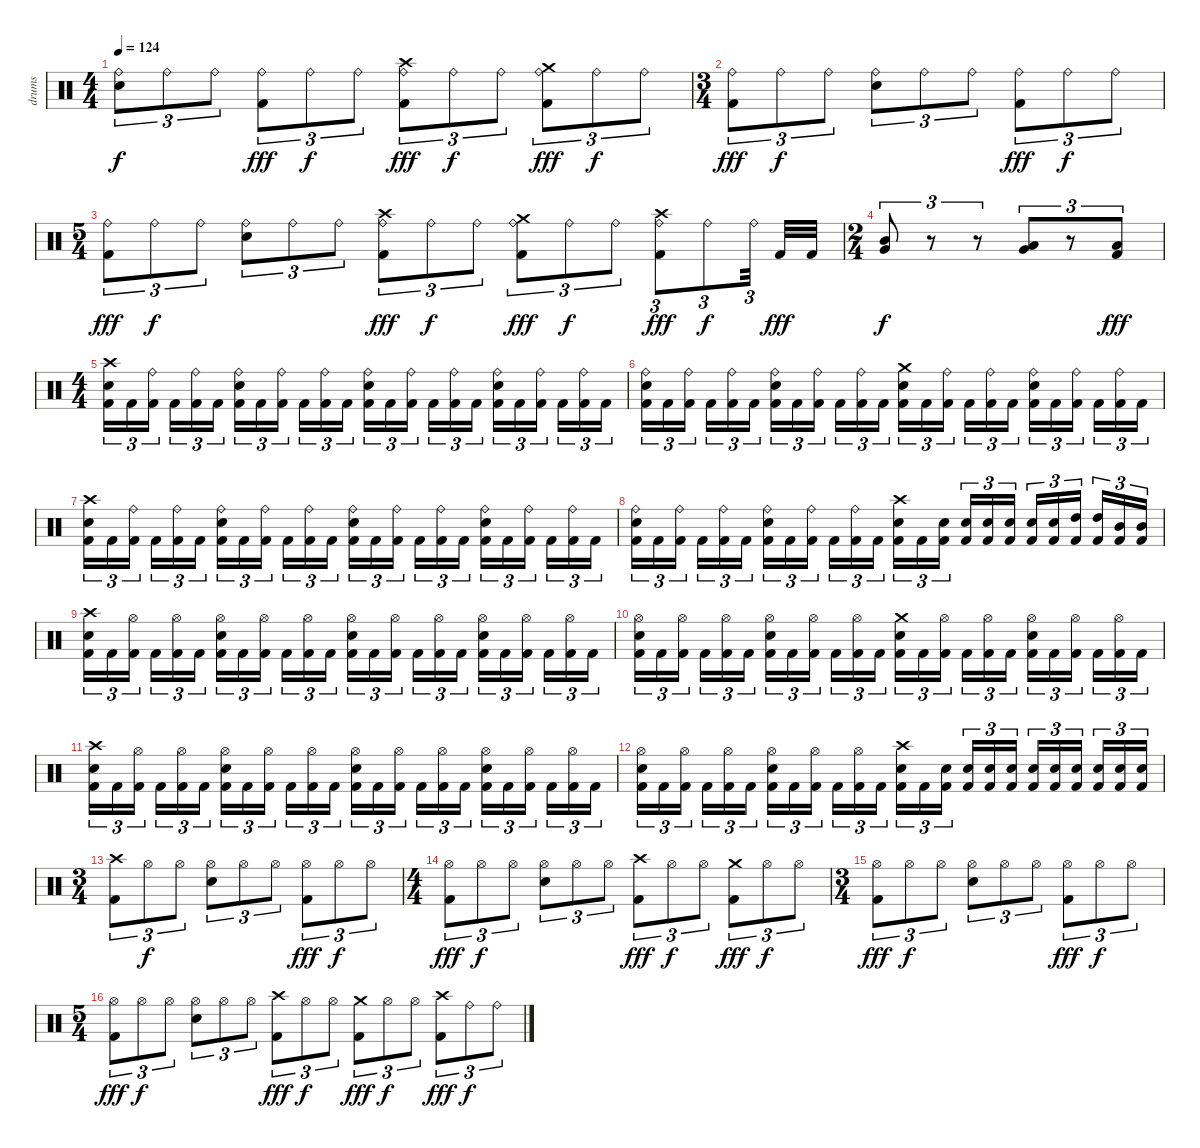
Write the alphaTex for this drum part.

\track ("drums" "drums") {instrument percussion}
\staff {score}
\articulation defaults
\ts (4 4)
\tempo 124
\clef neutral
\ks c
("Ride (bell)" "Snare (hit) 2").8{tu (3 2) dy f} "Ride (bell)".8{tu (3 2)} "Ride (bell)".8{tu (3 2)} ("Ride (bell)" "Kick (hit) 2").8{tu (3 2) dy fff} "Ride (bell)".8{tu (3 2) dy f} "Ride (bell)".8{tu (3 2)} ("Crash high (hit)" "Ride (bell)" "Kick (hit) 2").8{tu (3 2) dy fff} "Ride (bell)".8{tu (3 2) dy f} "Ride (bell)".8{tu (3 2)} ("Crash medium (hit)" "Ride (bell)" "Kick (hit) 2").8{tu (3 2) dy fff} "Ride (bell)".8{tu (3 2) dy f} "Ride (bell)".8{tu (3 2)} |
\ts (3 4)
("Ride (bell)" "Kick (hit) 2").8{tu (3 2) dy fff} "Ride (bell)".8{tu (3 2) dy f} "Ride (bell)".8{tu (3 2)} ("Ride (bell)" "Snare (hit) 2").8{tu (3 2)} "Ride (bell)".8{tu (3 2)} "Ride (bell)".8{tu (3 2)} ("Ride (bell)" "Kick (hit) 2").8{tu (3 2) dy fff} "Ride (bell)".8{tu (3 2) dy f} "Ride (bell)".8{tu (3 2)} |
\ts (5 4)
("Ride (bell)" "Kick (hit) 2").8{tu (3 2) dy fff} "Ride (bell)".8{tu (3 2) dy f} "Ride (bell)".8{tu (3 2)} ("Ride (bell)" "Snare (hit) 2").8{tu (3 2)} "Ride (bell)".8{tu (3 2)} "Ride (bell)".8{tu (3 2)} ("Crash high (hit)" "Ride (bell)" "Kick (hit) 2").8{tu (3 2) dy fff} "Ride (bell)".8{tu (3 2) dy f} "Ride (bell)".8{tu (3 2)} ("Crash medium (hit)" "Ride (bell)" "Kick (hit) 2").8{tu (3 2) dy fff} "Ride (bell)".8{tu (3 2) dy f} "Ride (bell)".8{tu (3 2)} ("Crash high (hit)" "Ride (bell)" "Kick (hit) 2").8{tu (3 2) dy fff} "Ride (bell)".8{tu (3 2) dy f} "Ride (bell)".32{tu (3 2)} "Kick (hit) 2".32{dy fff} "Kick (hit) 2".32 |
\ts (2 4)
("Mid Tom (hit)" "Very Low Tom (hit)").8{tu (3 2) dy f} r.8{tu (3 2)} r.8{tu (3 2)} ("Low Tom (hit)" "Very Low Tom (hit)").8{tu (3 2)} r.8{tu (3 2)} ("Low Tom (hit)" "Kick (hit) 2").8{tu (3 2) dy fff} |
\ts (4 4)
("Crash high (hit)" "Snare (hit) 2" "Kick (hit) 2").16{tu (3 2)} "Kick (hit) 2".16{tu (3 2)} ("Ride (bell)" "Kick (hit) 2").16{tu (3 2)} "Kick (hit) 2".16{tu (3 2)} ("Ride (bell)" "Kick (hit) 2").16{tu (3 2)} "Kick (hit) 2".16{tu (3 2)} ("Ride (bell)" "Snare (hit) 2" "Kick (hit) 2").16{tu (3 2)} "Kick (hit) 2".16{tu (3 2)} ("Ride (bell)" "Kick (hit) 2").16{tu (3 2)} "Kick (hit) 2".16{tu (3 2)} ("Ride (bell)" "Kick (hit) 2").16{tu (3 2)} "Kick (hit) 2".16{tu (3 2)} ("Ride (bell)" "Snare (hit) 2" "Kick (hit) 2").16{tu (3 2)} "Kick (hit) 2".16{tu (3 2)} ("Ride (bell)" "Kick (hit) 2").16{tu (3 2)} "Kick (hit) 2".16{tu (3 2)} ("Ride (bell)" "Kick (hit) 2").16{tu (3 2)} "Kick (hit) 2".16{tu (3 2)} ("Ride (bell)" "Snare (hit) 2" "Kick (hit) 2").16{tu (3 2)} "Kick (hit) 2".16{tu (3 2)} ("Ride (bell)" "Kick (hit) 2").16{tu (3 2)} "Kick (hit) 2".16{tu (3 2)} ("Ride (bell)" "Kick (hit) 2").16{tu (3 2)} "Kick (hit) 2".16{tu (3 2)} |
("Ride (bell)" "Snare (hit) 2" "Kick (hit) 2").16{tu (3 2)} "Kick (hit) 2".16{tu (3 2)} ("Ride (bell)" "Kick (hit) 2").16{tu (3 2)} "Kick (hit) 2".16{tu (3 2)} ("Ride (bell)" "Kick (hit) 2").16{tu (3 2)} "Kick (hit) 2".16{tu (3 2)} ("Ride (bell)" "Snare (hit) 2" "Kick (hit) 2").16{tu (3 2)} "Kick (hit) 2".16{tu (3 2)} ("Ride (bell)" "Kick (hit) 2").16{tu (3 2)} "Kick (hit) 2".16{tu (3 2)} ("Ride (bell)" "Kick (hit) 2").16{tu (3 2)} "Kick (hit) 2".16{tu (3 2)} ("Crash medium (hit)" "Snare (hit) 2" "Kick (hit) 2").16{tu (3 2)} "Kick (hit) 2".16{tu (3 2)} ("Ride (bell)" "Kick (hit) 2").16{tu (3 2)} "Kick (hit) 2".16{tu (3 2)} ("Ride (bell)" "Kick (hit) 2").16{tu (3 2)} "Kick (hit) 2".16{tu (3 2)} ("Ride (bell)" "Snare (hit) 2" "Kick (hit) 2").16{tu (3 2)} "Kick (hit) 2".16{tu (3 2)} ("Ride (bell)" "Kick (hit) 2").16{tu (3 2)} "Kick (hit) 2".16{tu (3 2)} ("Ride (bell)" "Kick (hit) 2").16{tu (3 2)} "Kick (hit) 2".16{tu (3 2)} |
("Crash high (hit)" "Snare (hit) 2" "Kick (hit) 2").16{tu (3 2)} "Kick (hit) 2".16{tu (3 2)} ("Ride (bell)" "Kick (hit) 2").16{tu (3 2)} "Kick (hit) 2".16{tu (3 2)} ("Ride (bell)" "Kick (hit) 2").16{tu (3 2)} "Kick (hit) 2".16{tu (3 2)} ("Ride (bell)" "Snare (hit) 2" "Kick (hit) 2").16{tu (3 2)} "Kick (hit) 2".16{tu (3 2)} ("Ride (bell)" "Kick (hit) 2").16{tu (3 2)} "Kick (hit) 2".16{tu (3 2)} ("Ride (bell)" "Kick (hit) 2").16{tu (3 2)} "Kick (hit) 2".16{tu (3 2)} ("Ride (bell)" "Snare (hit) 2" "Kick (hit) 2").16{tu (3 2)} "Kick (hit) 2".16{tu (3 2)} ("Ride (bell)" "Kick (hit) 2").16{tu (3 2)} "Kick (hit) 2".16{tu (3 2)} ("Ride (bell)" "Kick (hit) 2").16{tu (3 2)} "Kick (hit) 2".16{tu (3 2)} ("Ride (bell)" "Snare (hit) 2" "Kick (hit) 2").16{tu (3 2)} "Kick (hit) 2".16{tu (3 2)} ("Ride (bell)" "Kick (hit) 2").16{tu (3 2)} "Kick (hit) 2".16{tu (3 2)} ("Ride (bell)" "Kick (hit) 2").16{tu (3 2)} "Kick (hit) 2".16{tu (3 2)} |
("Ride (bell)" "Snare (hit) 2" "Kick (hit) 2").16{tu (3 2)} "Kick (hit) 2".16{tu (3 2)} ("Ride (bell)" "Kick (hit) 2").16{tu (3 2)} "Kick (hit) 2".16{tu (3 2)} ("Ride (bell)" "Kick (hit) 2").16{tu (3 2)} "Kick (hit) 2".16{tu (3 2)} ("Ride (bell)" "Snare (hit) 2" "Kick (hit) 2").16{tu (3 2)} "Kick (hit) 2".16{tu (3 2)} ("Ride (bell)" "Kick (hit) 2").16{tu (3 2)} "Kick (hit) 2".16{tu (3 2)} ("Ride (bell)" "Kick (hit) 2").16{tu (3 2)} "Kick (hit) 2".16{tu (3 2)} ("Crash high (hit)" "Snare (hit) 2" "Kick (hit) 2").16{tu (3 2)} "Kick (hit) 2".16{tu (3 2)} ("Snare (hit) 2" "Kick (hit) 2").16{tu (3 2)} ("Snare (hit) 2" "Kick (hit) 2").16{tu (3 2)} ("Snare (hit) 2" "Kick (hit) 2").16{tu (3 2)} ("Snare (hit) 2" "Kick (hit) 2").16{tu (3 2)} ("Snare (hit) 2" "Kick (hit) 2").16{tu (3 2)} ("Snare (hit) 2" "Kick (hit) 2").16{tu (3 2)} ("High Tom (hit)" "Kick (hit) 2").16{tu (3 2)} ("High Tom (hit)" "Kick (hit) 2").16{tu (3 2)} ("Mid Tom (hit)" "Kick (hit) 2").16{tu (3 2)} ("Mid Tom (hit)" "Kick (hit) 2").16{tu (3 2)} |
("Crash high (hit)" "Snare (hit) 2" "Kick (hit) 2").16{tu (3 2)} "Kick (hit) 2".16{tu (3 2)} ("Hi-Hat (open)" "Kick (hit) 2").16{tu (3 2)} "Kick (hit) 2".16{tu (3 2)} ("Hi-Hat (open)" "Kick (hit) 2").16{tu (3 2)} "Kick (hit) 2".16{tu (3 2)} ("Hi-Hat (open)" "Snare (hit) 2" "Kick (hit) 2").16{tu (3 2)} "Kick (hit) 2".16{tu (3 2)} ("Hi-Hat (open)" "Kick (hit) 2").16{tu (3 2)} "Kick (hit) 2".16{tu (3 2)} ("Hi-Hat (open)" "Kick (hit) 2").16{tu (3 2)} "Kick (hit) 2".16{tu (3 2)} ("Hi-Hat (open)" "Snare (hit) 2" "Kick (hit) 2").16{tu (3 2)} "Kick (hit) 2".16{tu (3 2)} ("Hi-Hat (open)" "Kick (hit) 2").16{tu (3 2)} "Kick (hit) 2".16{tu (3 2)} ("Hi-Hat (open)" "Kick (hit) 2").16{tu (3 2)} "Kick (hit) 2".16{tu (3 2)} ("Hi-Hat (open)" "Snare (hit) 2" "Kick (hit) 2").16{tu (3 2)} "Kick (hit) 2".16{tu (3 2)} ("Hi-Hat (open)" "Kick (hit) 2").16{tu (3 2)} "Kick (hit) 2".16{tu (3 2)} ("Hi-Hat (open)" "Kick (hit) 2").16{tu (3 2)} "Kick (hit) 2".16{tu (3 2)} |
("Hi-Hat (open)" "Snare (hit) 2" "Kick (hit) 2").16{tu (3 2)} "Kick (hit) 2".16{tu (3 2)} ("Hi-Hat (open)" "Kick (hit) 2").16{tu (3 2)} "Kick (hit) 2".16{tu (3 2)} ("Hi-Hat (open)" "Kick (hit) 2").16{tu (3 2)} "Kick (hit) 2".16{tu (3 2)} ("Hi-Hat (open)" "Snare (hit) 2" "Kick (hit) 2").16{tu (3 2)} "Kick (hit) 2".16{tu (3 2)} ("Hi-Hat (open)" "Kick (hit) 2").16{tu (3 2)} "Kick (hit) 2".16{tu (3 2)} ("Hi-Hat (open)" "Kick (hit) 2").16{tu (3 2)} "Kick (hit) 2".16{tu (3 2)} ("Crash medium (hit)" "Snare (hit) 2" "Kick (hit) 2").16{tu (3 2)} "Kick (hit) 2".16{tu (3 2)} ("Hi-Hat (open)" "Kick (hit) 2").16{tu (3 2)} "Kick (hit) 2".16{tu (3 2)} ("Hi-Hat (open)" "Kick (hit) 2").16{tu (3 2)} "Kick (hit) 2".16{tu (3 2)} ("Hi-Hat (open)" "Snare (hit) 2" "Kick (hit) 2").16{tu (3 2)} "Kick (hit) 2".16{tu (3 2)} ("Hi-Hat (open)" "Kick (hit) 2").16{tu (3 2)} "Kick (hit) 2".16{tu (3 2)} ("Hi-Hat (open)" "Kick (hit) 2").16{tu (3 2)} "Kick (hit) 2".16{tu (3 2)} |
("Crash high (hit)" "Snare (hit) 2" "Kick (hit) 2").16{tu (3 2)} "Kick (hit) 2".16{tu (3 2)} ("Hi-Hat (open)" "Kick (hit) 2").16{tu (3 2)} "Kick (hit) 2".16{tu (3 2)} ("Hi-Hat (open)" "Kick (hit) 2").16{tu (3 2)} "Kick (hit) 2".16{tu (3 2)} ("Hi-Hat (open)" "Snare (hit) 2" "Kick (hit) 2").16{tu (3 2)} "Kick (hit) 2".16{tu (3 2)} ("Hi-Hat (open)" "Kick (hit) 2").16{tu (3 2)} "Kick (hit) 2".16{tu (3 2)} ("Hi-Hat (open)" "Kick (hit) 2").16{tu (3 2)} "Kick (hit) 2".16{tu (3 2)} ("Hi-Hat (open)" "Snare (hit) 2" "Kick (hit) 2").16{tu (3 2)} "Kick (hit) 2".16{tu (3 2)} ("Hi-Hat (open)" "Kick (hit) 2").16{tu (3 2)} "Kick (hit) 2".16{tu (3 2)} ("Hi-Hat (open)" "Kick (hit) 2").16{tu (3 2)} "Kick (hit) 2".16{tu (3 2)} ("Hi-Hat (open)" "Snare (hit) 2" "Kick (hit) 2").16{tu (3 2)} "Kick (hit) 2".16{tu (3 2)} ("Hi-Hat (open)" "Kick (hit) 2").16{tu (3 2)} "Kick (hit) 2".16{tu (3 2)} ("Hi-Hat (open)" "Kick (hit) 2").16{tu (3 2)} "Kick (hit) 2".16{tu (3 2)} |
("Hi-Hat (open)" "Snare (hit) 2" "Kick (hit) 2").16{tu (3 2)} "Kick (hit) 2".16{tu (3 2)} ("Hi-Hat (open)" "Kick (hit) 2").16{tu (3 2)} "Kick (hit) 2".16{tu (3 2)} ("Hi-Hat (open)" "Kick (hit) 2").16{tu (3 2)} "Kick (hit) 2".16{tu (3 2)} ("Hi-Hat (open)" "Snare (hit) 2" "Kick (hit) 2").16{tu (3 2)} "Kick (hit) 2".16{tu (3 2)} ("Hi-Hat (open)" "Kick (hit) 2").16{tu (3 2)} "Kick (hit) 2".16{tu (3 2)} ("Hi-Hat (open)" "Kick (hit) 2").16{tu (3 2)} "Kick (hit) 2".16{tu (3 2)} ("Crash high (hit)" "Snare (hit) 2" "Kick (hit) 2").16{tu (3 2)} "Kick (hit) 2".16{tu (3 2)} ("Snare (hit) 2" "Kick (hit) 2").16{tu (3 2)} ("Snare (hit) 2" "Kick (hit) 2").16{tu (3 2)} ("Snare (hit) 2" "Kick (hit) 2").16{tu (3 2)} ("Snare (hit) 2" "Kick (hit) 2").16{tu (3 2)} ("Snare (hit) 2" "Kick (hit) 2").16{tu (3 2)} ("Snare (hit) 2" "Kick (hit) 2").16{tu (3 2)} ("Snare (hit) 2" "Kick (hit) 2").16{tu (3 2)} ("Snare (hit) 2" "Kick (hit) 2").16{tu (3 2)} ("Snare (hit) 2" "Kick (hit) 2").16{tu (3 2)} ("Snare (hit) 2" "Kick (hit) 2").16{tu (3 2)} |
\ts (3 4)
("Crash high (hit)" "Kick (hit) 2").8{tu (3 2)} "Hi-Hat (open)".8{tu (3 2) dy f} "Hi-Hat (open)".8{tu (3 2)} ("Hi-Hat (open)" "Snare (hit) 2").8{tu (3 2)} "Hi-Hat (open)".8{tu (3 2)} "Hi-Hat (open)".8{tu (3 2)} ("Hi-Hat (open)" "Kick (hit) 2").8{tu (3 2) dy fff} "Hi-Hat (open)".8{tu (3 2) dy f} "Hi-Hat (open)".8{tu (3 2)} |
\ts (4 4)
("Hi-Hat (open)" "Kick (hit) 2").8{tu (3 2) dy fff} "Hi-Hat (open)".8{tu (3 2) dy f} "Hi-Hat (open)".8{tu (3 2)} ("Hi-Hat (open)" "Snare (hit) 2").8{tu (3 2)} "Hi-Hat (open)".8{tu (3 2)} "Hi-Hat (open)".8{tu (3 2)} ("Crash high (hit)" "Kick (hit) 2").8{tu (3 2) dy fff} "Hi-Hat (open)".8{tu (3 2) dy f} "Hi-Hat (open)".8{tu (3 2)} ("Crash medium (hit)" "Kick (hit) 2").8{tu (3 2) dy fff} "Hi-Hat (open)".8{tu (3 2) dy f} "Hi-Hat (open)".8{tu (3 2)} |
\ts (3 4)
("Hi-Hat (open)" "Kick (hit) 2").8{tu (3 2) dy fff} "Hi-Hat (open)".8{tu (3 2) dy f} "Hi-Hat (open)".8{tu (3 2)} ("Hi-Hat (open)" "Snare (hit) 2").8{tu (3 2)} "Hi-Hat (open)".8{tu (3 2)} "Hi-Hat (open)".8{tu (3 2)} ("Hi-Hat (open)" "Kick (hit) 2").8{tu (3 2) dy fff} "Hi-Hat (open)".8{tu (3 2) dy f} "Hi-Hat (open)".8{tu (3 2)} |
\ts (5 4)
("Hi-Hat (open)" "Kick (hit) 2").8{tu (3 2) dy fff} "Hi-Hat (open)".8{tu (3 2) dy f} "Hi-Hat (open)".8{tu (3 2)} ("Hi-Hat (open)" "Snare (hit) 2").8{tu (3 2)} "Hi-Hat (open)".8{tu (3 2)} "Hi-Hat (open)".8{tu (3 2)} ("Crash high (hit)" "Kick (hit) 2").8{tu (3 2) dy fff} "Hi-Hat (open)".8{tu (3 2) dy f} "Hi-Hat (open)".8{tu (3 2)} ("Crash medium (hit)" "Kick (hit) 2").8{tu (3 2) dy fff} "Hi-Hat (open)".8{tu (3 2) dy f} "Hi-Hat (open)".8{tu (3 2)} ("Crash high (hit)" "Kick (hit) 2").8{tu (3 2) dy fff} "Ride (bell)".8{tu (3 2) dy f} "Ride (bell)".8{tu (3 2)}
